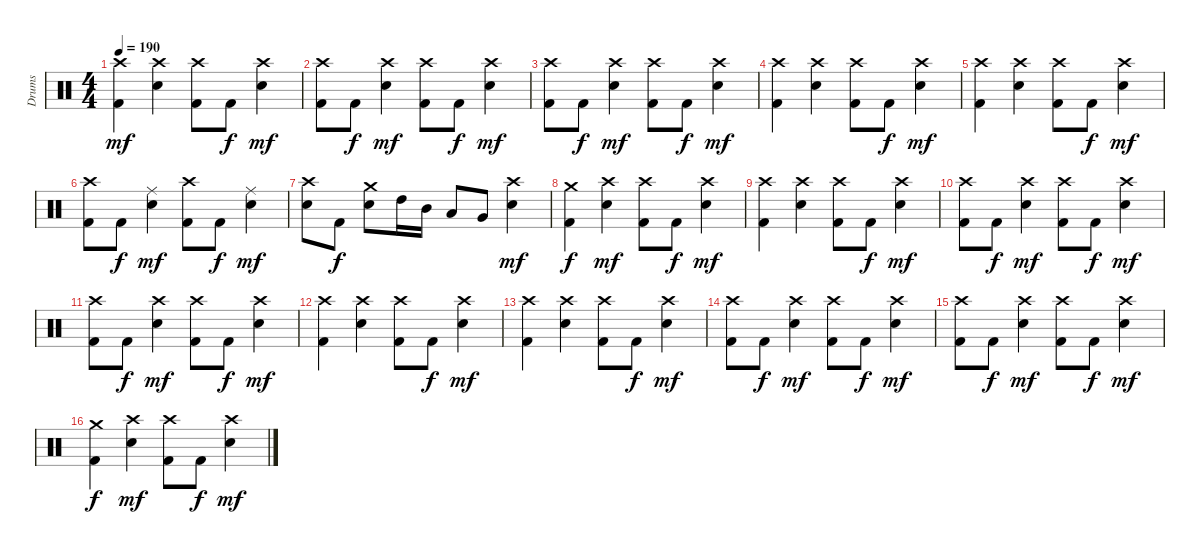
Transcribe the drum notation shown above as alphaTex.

\track ("Drums" "Drums") {instrument percussion}
\staff {score}
\articulation defaults
\ts (4 4)
\tempo 190
\clef neutral
\ks c
("Crash high (hit)" "Kick (hit) 2").4{dy mf} ("Crash high (hit)" "Snare (hit) 2").4 ("Crash high (hit)" "Kick (hit) 2").8 "Kick (hit) 2".8{dy f} ("Crash high (hit)" "Snare (hit) 2").4{dy mf} |
("Crash high (hit)" "Kick (hit) 2").8 "Kick (hit) 2".8{dy f} ("Crash high (hit)" "Snare (hit) 2").4{dy mf} ("Crash high (hit)" "Kick (hit) 2").8 "Kick (hit) 2".8{dy f} ("Crash high (hit)" "Snare (hit) 2").4{dy mf} |
("Crash high (hit)" "Kick (hit) 2").8 "Kick (hit) 2".8{dy f} ("Crash high (hit)" "Snare (hit) 2").4{dy mf} ("Crash high (hit)" "Kick (hit) 2").8 "Kick (hit) 2".8{dy f} ("Crash high (hit)" "Snare (hit) 2").4{dy mf} |
("Crash high (hit)" "Kick (hit) 2").4 ("Crash high (hit)" "Snare (hit) 2").4 ("Crash high (hit)" "Kick (hit) 2").8 "Kick (hit) 2".8{dy f} ("Crash high (hit)" "Snare (hit) 2").4{dy mf} |
("Crash high (hit)" "Kick (hit) 2").4 ("Crash high (hit)" "Snare (hit) 2").4 ("Crash high (hit)" "Kick (hit) 2").8 "Kick (hit) 2".8{dy f} ("Crash high (hit)" "Snare (hit) 2").4{dy mf} |
("Crash high (hit)" "Kick (hit) 2").8 "Kick (hit) 2".8{dy f} ("Ride (middle)" "Snare (hit) 2").4{dy mf} ("Crash high (hit)" "Kick (hit) 2").8 "Kick (hit) 2".8{dy f} ("Ride (middle)" "Snare (hit) 2").4{dy mf} |
("Crash high (hit)" "Snare (hit) 2").8 "Kick (hit) 2".8{dy f} ("Crash medium (hit)" "Snare (hit) 2").8 "High Tom (hit)".16 "Mid Tom (hit)".16 "Low Tom (hit)".8 "Very Low Tom (hit)".8 ("Crash high (hit)" "Snare (hit) 2").4{dy mf} |
("Crash medium (hit)" "Kick (hit) 2").4{dy f} ("Crash high (hit)" "Snare (hit) 2").4{dy mf} ("Crash high (hit)" "Kick (hit) 2").8 "Kick (hit) 2".8{dy f} ("Crash high (hit)" "Snare (hit) 2").4{dy mf} |
("Crash high (hit)" "Kick (hit) 2").4 ("Crash high (hit)" "Snare (hit) 2").4 ("Crash high (hit)" "Kick (hit) 2").8 "Kick (hit) 2".8{dy f} ("Crash high (hit)" "Snare (hit) 2").4{dy mf} |
("Crash high (hit)" "Kick (hit) 2").8 "Kick (hit) 2".8{dy f} ("Crash high (hit)" "Snare (hit) 2").4{dy mf} ("Crash high (hit)" "Kick (hit) 2").8 "Kick (hit) 2".8{dy f} ("Crash high (hit)" "Snare (hit) 2").4{dy mf} |
("Crash high (hit)" "Kick (hit) 2").8 "Kick (hit) 2".8{dy f} ("Crash high (hit)" "Snare (hit) 2").4{dy mf} ("Crash high (hit)" "Kick (hit) 2").8 "Kick (hit) 2".8{dy f} ("Crash high (hit)" "Snare (hit) 2").4{dy mf} |
("Crash high (hit)" "Kick (hit) 2").4 ("Crash high (hit)" "Snare (hit) 2").4 ("Crash high (hit)" "Kick (hit) 2").8 "Kick (hit) 2".8{dy f} ("Crash high (hit)" "Snare (hit) 2").4{dy mf} |
("Crash high (hit)" "Kick (hit) 2").4 ("Crash high (hit)" "Snare (hit) 2").4 ("Crash high (hit)" "Kick (hit) 2").8 "Kick (hit) 2".8{dy f} ("Crash high (hit)" "Snare (hit) 2").4{dy mf} |
("Crash high (hit)" "Kick (hit) 2").8 "Kick (hit) 2".8{dy f} ("Crash high (hit)" "Snare (hit) 2").4{dy mf} ("Crash high (hit)" "Kick (hit) 2").8 "Kick (hit) 2".8{dy f} ("Crash high (hit)" "Snare (hit) 2").4{dy mf} |
("Crash high (hit)" "Kick (hit) 2").8 "Kick (hit) 2".8{dy f} ("Crash high (hit)" "Snare (hit) 2").4{dy mf} ("Crash high (hit)" "Kick (hit) 2").8 "Kick (hit) 2".8{dy f} ("Crash high (hit)" "Snare (hit) 2").4{dy mf} |
("Crash medium (hit)" "Kick (hit) 2").4{dy f} ("Crash high (hit)" "Snare (hit) 2").4{dy mf} ("Crash high (hit)" "Kick (hit) 2").8 "Kick (hit) 2".8{dy f} ("Crash high (hit)" "Snare (hit) 2").4{dy mf}
